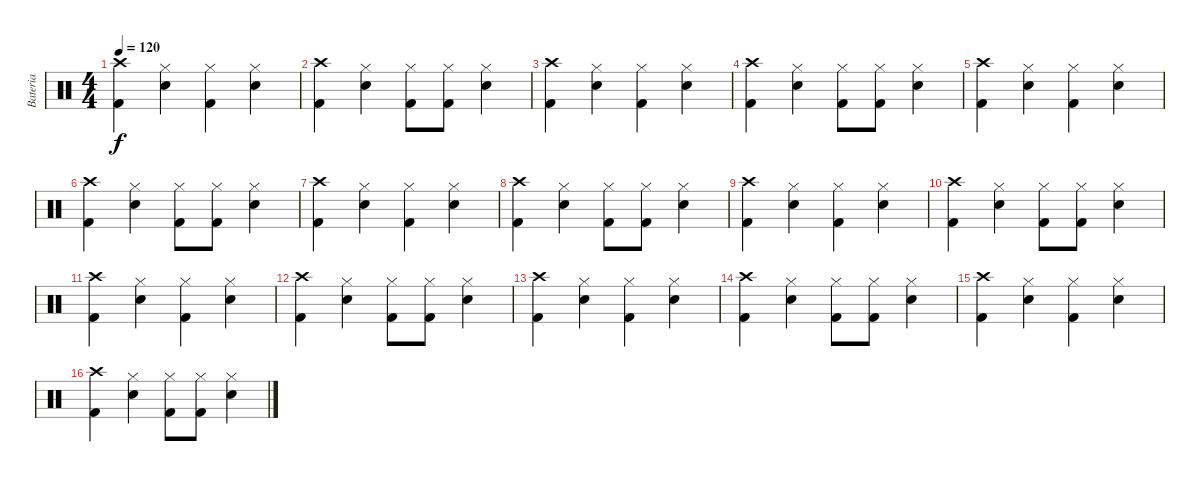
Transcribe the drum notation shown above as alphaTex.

\track ("Bateria" "Bateria") {instrument percussion}
\staff {score}
\articulation defaults
\ts (4 4)
\tempo 120
\clef neutral
\ks c
("Kick (hit) 2" "Crash high (hit)").4{dy f} ("Snare (hit) 2" "Hi-Hat (closed)").4 ("Kick (hit) 2" "Hi-Hat (closed)").4 ("Snare (hit) 2" "Hi-Hat (closed)").4 |
("Kick (hit) 2" "Crash high (hit)").4 ("Snare (hit) 2" "Hi-Hat (closed)").4 ("Kick (hit) 2" "Hi-Hat (closed)").8 ("Kick (hit) 2" "Hi-Hat (closed)").8 ("Snare (hit) 2" "Hi-Hat (closed)").4 |
("Kick (hit) 2" "Crash high (hit)").4 ("Snare (hit) 2" "Hi-Hat (closed)").4 ("Kick (hit) 2" "Hi-Hat (closed)").4 ("Snare (hit) 2" "Hi-Hat (closed)").4 |
("Kick (hit) 2" "Crash high (hit)").4 ("Snare (hit) 2" "Hi-Hat (closed)").4 ("Kick (hit) 2" "Hi-Hat (closed)").8 ("Kick (hit) 2" "Hi-Hat (closed)").8 ("Snare (hit) 2" "Hi-Hat (closed)").4 |
("Kick (hit) 2" "Crash high (hit)").4 ("Snare (hit) 2" "Hi-Hat (closed)").4 ("Kick (hit) 2" "Hi-Hat (closed)").4 ("Snare (hit) 2" "Hi-Hat (closed)").4 |
("Kick (hit) 2" "Crash high (hit)").4 ("Snare (hit) 2" "Hi-Hat (closed)").4 ("Kick (hit) 2" "Hi-Hat (closed)").8 ("Kick (hit) 2" "Hi-Hat (closed)").8 ("Snare (hit) 2" "Hi-Hat (closed)").4 |
("Kick (hit) 2" "Crash high (hit)").4 ("Snare (hit) 2" "Hi-Hat (closed)").4 ("Kick (hit) 2" "Hi-Hat (closed)").4 ("Snare (hit) 2" "Hi-Hat (closed)").4 |
("Kick (hit) 2" "Crash high (hit)").4 ("Snare (hit) 2" "Hi-Hat (closed)").4 ("Kick (hit) 2" "Hi-Hat (closed)").8 ("Kick (hit) 2" "Hi-Hat (closed)").8 ("Snare (hit) 2" "Hi-Hat (closed)").4 |
("Kick (hit) 2" "Crash high (hit)").4 ("Snare (hit) 2" "Hi-Hat (closed)").4 ("Kick (hit) 2" "Hi-Hat (closed)").4 ("Snare (hit) 2" "Hi-Hat (closed)").4 |
("Kick (hit) 2" "Crash high (hit)").4 ("Snare (hit) 2" "Hi-Hat (closed)").4 ("Kick (hit) 2" "Hi-Hat (closed)").8 ("Kick (hit) 2" "Hi-Hat (closed)").8 ("Snare (hit) 2" "Hi-Hat (closed)").4 |
("Kick (hit) 2" "Crash high (hit)").4 ("Snare (hit) 2" "Hi-Hat (closed)").4 ("Kick (hit) 2" "Hi-Hat (closed)").4 ("Snare (hit) 2" "Hi-Hat (closed)").4 |
("Kick (hit) 2" "Crash high (hit)").4 ("Snare (hit) 2" "Hi-Hat (closed)").4 ("Kick (hit) 2" "Hi-Hat (closed)").8 ("Kick (hit) 2" "Hi-Hat (closed)").8 ("Snare (hit) 2" "Hi-Hat (closed)").4 |
("Kick (hit) 2" "Crash high (hit)").4 ("Snare (hit) 2" "Hi-Hat (closed)").4 ("Kick (hit) 2" "Hi-Hat (closed)").4 ("Snare (hit) 2" "Hi-Hat (closed)").4 |
("Kick (hit) 2" "Crash high (hit)").4 ("Snare (hit) 2" "Hi-Hat (closed)").4 ("Kick (hit) 2" "Hi-Hat (closed)").8 ("Kick (hit) 2" "Hi-Hat (closed)").8 ("Snare (hit) 2" "Hi-Hat (closed)").4 |
("Kick (hit) 2" "Crash high (hit)").4 ("Snare (hit) 2" "Hi-Hat (closed)").4 ("Kick (hit) 2" "Hi-Hat (closed)").4 ("Snare (hit) 2" "Hi-Hat (closed)").4 |
("Kick (hit) 2" "Crash high (hit)").4 ("Snare (hit) 2" "Hi-Hat (closed)").4 ("Kick (hit) 2" "Hi-Hat (closed)").8 ("Kick (hit) 2" "Hi-Hat (closed)").8 ("Snare (hit) 2" "Hi-Hat (closed)").4
